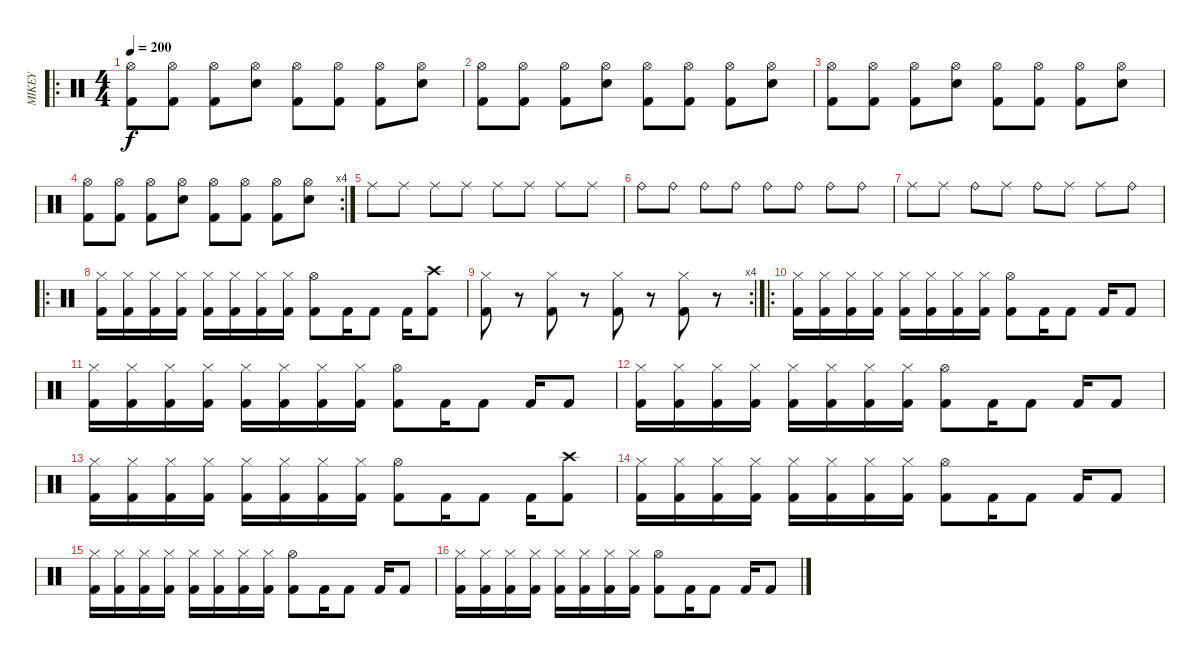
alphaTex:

\track ("MIKEY" "MIKEY") {instrument percussion}
\staff {score}
\articulation defaults
\ro
\ts (4 4)
\tempo 200
\clef neutral
\ks c
("Hi-Hat (open)" "Kick (hit) 2").8{dy f} ("Hi-Hat (open)" "Kick (hit) 2").8 ("Hi-Hat (open)" "Kick (hit) 2").8 ("Hi-Hat (open)" "Electric Snare (hit)").8 ("Hi-Hat (open)" "Kick (hit) 2").8 ("Hi-Hat (open)" "Kick (hit) 2").8 ("Hi-Hat (open)" "Kick (hit) 2").8 ("Hi-Hat (open)" "Electric Snare (hit)").8 |
("Hi-Hat (open)" "Kick (hit) 2").8 ("Hi-Hat (open)" "Kick (hit) 2").8 ("Hi-Hat (open)" "Kick (hit) 2").8 ("Hi-Hat (open)" "Electric Snare (hit)").8 ("Hi-Hat (open)" "Kick (hit) 2").8 ("Hi-Hat (open)" "Kick (hit) 2").8 ("Hi-Hat (open)" "Kick (hit) 2").8 ("Hi-Hat (open)" "Electric Snare (hit)").8 |
("Hi-Hat (open)" "Kick (hit) 2").8 ("Hi-Hat (open)" "Kick (hit) 2").8 ("Hi-Hat (open)" "Kick (hit) 2").8 ("Hi-Hat (open)" "Electric Snare (hit)").8 ("Hi-Hat (open)" "Kick (hit) 2").8 ("Hi-Hat (open)" "Kick (hit) 2").8 ("Hi-Hat (open)" "Kick (hit) 2").8 ("Hi-Hat (open)" "Electric Snare (hit)").8 |
\rc 4
("Hi-Hat (open)" "Kick (hit) 2").8 ("Hi-Hat (open)" "Kick (hit) 2").8 ("Hi-Hat (open)" "Kick (hit) 2").8 ("Hi-Hat (open)" "Electric Snare (hit)").8 ("Hi-Hat (open)" "Kick (hit) 2").8 ("Hi-Hat (open)" "Kick (hit) 2").8 ("Hi-Hat (open)" "Kick (hit) 2").8 ("Hi-Hat (open)" "Electric Snare (hit)").8 |
"Ride (middle)".8 "Ride (middle)".8 "Ride (middle)".8 "Ride (middle)".8 "Ride (middle)".8 "Ride (middle)".8 "Ride (middle)".8 "Ride (middle)".8 |
"Ride (bell)".8 "Ride (bell)".8 "Ride (bell)".8 "Ride (bell)".8 "Ride (bell)".8 "Ride (bell)".8 "Ride (bell)".8 "Ride (bell)".8 |
"Ride (middle)".8 "Ride (middle)".8 "Ride (bell)".8 "Ride (middle)".8 "Ride (bell)".8 "Ride (middle)".8 "Ride (middle)".8 "Ride (bell)".8 |
\ro
("Hi-Hat (closed)" "Kick (hit) 2").16 ("Hi-Hat (closed)" "Kick (hit) 2").16 ("Hi-Hat (closed)" "Kick (hit) 2").16 ("Hi-Hat (closed)" "Kick (hit) 2").16 ("Hi-Hat (closed)" "Kick (hit) 2").16 ("Hi-Hat (closed)" "Kick (hit) 2").16 ("Hi-Hat (closed)" "Kick (hit) 2").16 ("Hi-Hat (closed)" "Kick (hit) 2").16 ("Hi-Hat (open)" "Kick (hit) 2").8 "Kick (hit) 2".16 "Kick (hit) 2".8 "Kick (hit) 2".16 ("Crash high (hit)" "Kick (hit) 2").8 |
\rc 4
("Hi-Hat (closed)" "Kick (hit) 2").8 r.8 ("Hi-Hat (closed)" "Kick (hit) 2").8 r.8 ("Hi-Hat (closed)" "Kick (hit) 2").8 r.8 ("Hi-Hat (closed)" "Kick (hit) 2").8 r.8 |
\ro
("Hi-Hat (closed)" "Kick (hit) 2").16 ("Hi-Hat (closed)" "Kick (hit) 2").16 ("Hi-Hat (closed)" "Kick (hit) 2").16 ("Hi-Hat (closed)" "Kick (hit) 2").16 ("Hi-Hat (closed)" "Kick (hit) 2").16 ("Hi-Hat (closed)" "Kick (hit) 2").16 ("Hi-Hat (closed)" "Kick (hit) 2").16 ("Hi-Hat (closed)" "Kick (hit) 2").16 ("Hi-Hat (open)" "Kick (hit) 2").8 "Kick (hit) 2".16 "Kick (hit) 2".8 "Kick (hit) 2".16 "Kick (hit) 2".8 |
("Hi-Hat (closed)" "Kick (hit) 2").16 ("Hi-Hat (closed)" "Kick (hit) 2").16 ("Hi-Hat (closed)" "Kick (hit) 2").16 ("Hi-Hat (closed)" "Kick (hit) 2").16 ("Hi-Hat (closed)" "Kick (hit) 2").16 ("Hi-Hat (closed)" "Kick (hit) 2").16 ("Hi-Hat (closed)" "Kick (hit) 2").16 ("Hi-Hat (closed)" "Kick (hit) 2").16 ("Hi-Hat (open)" "Kick (hit) 2").8 "Kick (hit) 2".16 "Kick (hit) 2".8 "Kick (hit) 2".16 "Kick (hit) 2".8 |
("Hi-Hat (closed)" "Kick (hit) 2").16 ("Hi-Hat (closed)" "Kick (hit) 2").16 ("Hi-Hat (closed)" "Kick (hit) 2").16 ("Hi-Hat (closed)" "Kick (hit) 2").16 ("Hi-Hat (closed)" "Kick (hit) 2").16 ("Hi-Hat (closed)" "Kick (hit) 2").16 ("Hi-Hat (closed)" "Kick (hit) 2").16 ("Hi-Hat (closed)" "Kick (hit) 2").16 ("Hi-Hat (open)" "Kick (hit) 2").8 "Kick (hit) 2".16 "Kick (hit) 2".8 "Kick (hit) 2".16 "Kick (hit) 2".8 |
("Hi-Hat (closed)" "Kick (hit) 2").16 ("Hi-Hat (closed)" "Kick (hit) 2").16 ("Hi-Hat (closed)" "Kick (hit) 2").16 ("Hi-Hat (closed)" "Kick (hit) 2").16 ("Hi-Hat (closed)" "Kick (hit) 2").16 ("Hi-Hat (closed)" "Kick (hit) 2").16 ("Hi-Hat (closed)" "Kick (hit) 2").16 ("Hi-Hat (closed)" "Kick (hit) 2").16 ("Hi-Hat (open)" "Kick (hit) 2").8 "Kick (hit) 2".16 "Kick (hit) 2".8 "Kick (hit) 2".16 ("Crash high (hit)" "Kick (hit) 2").8 |
("Hi-Hat (closed)" "Kick (hit) 2").16 ("Hi-Hat (closed)" "Kick (hit) 2").16 ("Hi-Hat (closed)" "Kick (hit) 2").16 ("Hi-Hat (closed)" "Kick (hit) 2").16 ("Hi-Hat (closed)" "Kick (hit) 2").16 ("Hi-Hat (closed)" "Kick (hit) 2").16 ("Hi-Hat (closed)" "Kick (hit) 2").16 ("Hi-Hat (closed)" "Kick (hit) 2").16 ("Hi-Hat (open)" "Kick (hit) 2").8 "Kick (hit) 2".16 "Kick (hit) 2".8 "Kick (hit) 2".16 "Kick (hit) 2".8 |
("Hi-Hat (closed)" "Kick (hit) 2").16 ("Hi-Hat (closed)" "Kick (hit) 2").16 ("Hi-Hat (closed)" "Kick (hit) 2").16 ("Hi-Hat (closed)" "Kick (hit) 2").16 ("Hi-Hat (closed)" "Kick (hit) 2").16 ("Hi-Hat (closed)" "Kick (hit) 2").16 ("Hi-Hat (closed)" "Kick (hit) 2").16 ("Hi-Hat (closed)" "Kick (hit) 2").16 ("Hi-Hat (open)" "Kick (hit) 2").8 "Kick (hit) 2".16 "Kick (hit) 2".8 "Kick (hit) 2".16 "Kick (hit) 2".8 |
("Hi-Hat (closed)" "Kick (hit) 2").16 ("Hi-Hat (closed)" "Kick (hit) 2").16 ("Hi-Hat (closed)" "Kick (hit) 2").16 ("Hi-Hat (closed)" "Kick (hit) 2").16 ("Hi-Hat (closed)" "Kick (hit) 2").16 ("Hi-Hat (closed)" "Kick (hit) 2").16 ("Hi-Hat (closed)" "Kick (hit) 2").16 ("Hi-Hat (closed)" "Kick (hit) 2").16 ("Hi-Hat (open)" "Kick (hit) 2").8 "Kick (hit) 2".16 "Kick (hit) 2".8 "Kick (hit) 2".16 "Kick (hit) 2".8
